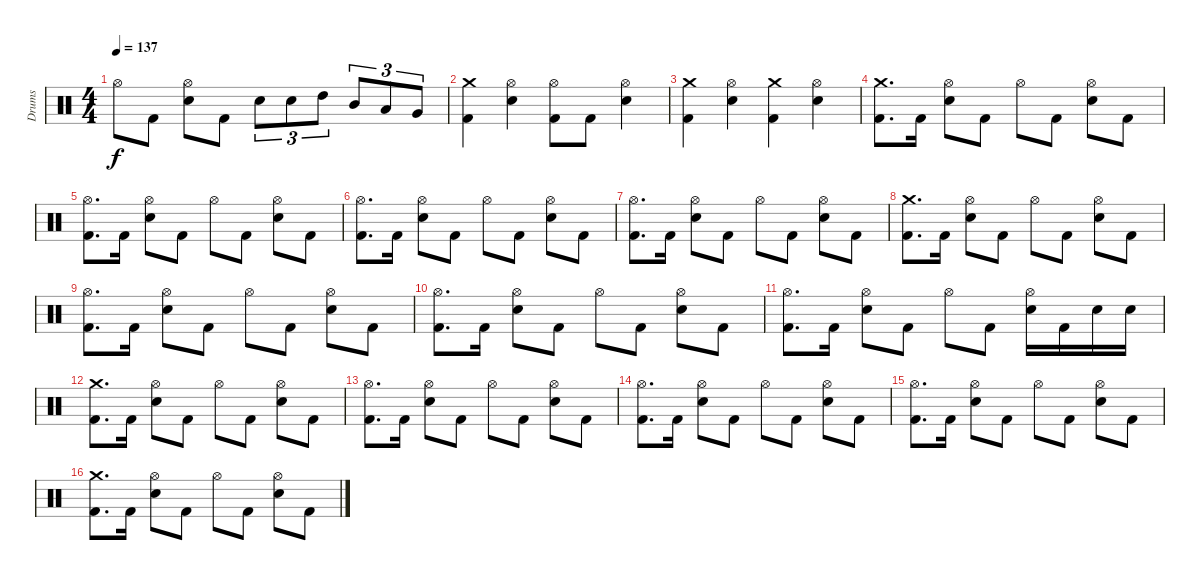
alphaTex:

\track ("Drums" "Drums") {instrument percussion}
\staff {score}
\articulation defaults
\ts (4 4)
\tempo 137
\clef neutral
\ks c "Hi-Hat (open)".8{dy f} "Kick (hit) 2".8
("Hi-Hat (open)" "Electric Snare (hit)").8 "Kick (hit) 2".8 "Electric Snare (hit)".8{tu (3 2)} "Electric Snare (hit)".8{tu (3 2)} "High Tom (hit)".8{tu (3 2)} "Mid Tom (hit)".8{tu (3 2)} "Low Tom (hit)".8{tu (3 2)} "Very Low Tom (hit)".8{tu (3 2)} |
("Crash medium (hit)" "Kick (hit) 2").4 ("Hi-Hat (open)" "Electric Snare (hit)").4 ("Hi-Hat (open)" "Kick (hit) 2").8 "Kick (hit) 2".8 ("Hi-Hat (open)" "Electric Snare (hit)").4 |
("Crash medium (hit)" "Kick (hit) 2").4 ("Hi-Hat (open)" "Electric Snare (hit)").4 ("Crash medium (hit)" "Kick (hit) 2").4 ("Hi-Hat (open)" "Electric Snare (hit)").4 |
("Crash medium (hit)" "Kick (hit) 2").8{d} "Kick (hit) 2".16 ("Hi-Hat (open)" "Electric Snare (hit)").8 "Kick (hit) 2".8 "Hi-Hat (open)".8 "Kick (hit) 2".8 ("Hi-Hat (open)" "Electric Snare (hit)").8 "Kick (hit) 2".8 |
("Hi-Hat (open)" "Kick (hit) 2").8{d} "Kick (hit) 2".16 ("Hi-Hat (open)" "Electric Snare (hit)").8 "Kick (hit) 2".8 "Hi-Hat (open)".8 "Kick (hit) 2".8 ("Hi-Hat (open)" "Electric Snare (hit)").8 "Kick (hit) 2".8 |
("Hi-Hat (open)" "Kick (hit) 2").8{d} "Kick (hit) 2".16 ("Hi-Hat (open)" "Electric Snare (hit)").8 "Kick (hit) 2".8 "Hi-Hat (open)".8 "Kick (hit) 2".8 ("Hi-Hat (open)" "Electric Snare (hit)").8 "Kick (hit) 2".8 |
("Hi-Hat (open)" "Kick (hit) 2").8{d} "Kick (hit) 2".16 ("Hi-Hat (open)" "Electric Snare (hit)").8 "Kick (hit) 2".8 "Hi-Hat (open)".8 "Kick (hit) 2".8 ("Hi-Hat (open)" "Electric Snare (hit)").8 "Kick (hit) 2".8 |
("Crash medium (hit)" "Kick (hit) 2").8{d} "Kick (hit) 2".16 ("Hi-Hat (open)" "Electric Snare (hit)").8 "Kick (hit) 2".8 "Hi-Hat (open)".8 "Kick (hit) 2".8 ("Hi-Hat (open)" "Electric Snare (hit)").8 "Kick (hit) 2".8 |
("Hi-Hat (open)" "Kick (hit) 2").8{d} "Kick (hit) 2".16 ("Hi-Hat (open)" "Electric Snare (hit)").8 "Kick (hit) 2".8 "Hi-Hat (open)".8 "Kick (hit) 2".8 ("Hi-Hat (open)" "Electric Snare (hit)").8 "Kick (hit) 2".8 |
("Hi-Hat (open)" "Kick (hit) 2").8{d} "Kick (hit) 2".16 ("Hi-Hat (open)" "Electric Snare (hit)").8 "Kick (hit) 2".8 "Hi-Hat (open)".8 "Kick (hit) 2".8 ("Hi-Hat (open)" "Electric Snare (hit)").8 "Kick (hit) 2".8 |
("Hi-Hat (open)" "Kick (hit) 2").8{d} "Kick (hit) 2".16 ("Hi-Hat (open)" "Electric Snare (hit)").8 "Kick (hit) 2".8 "Hi-Hat (open)".8 "Kick (hit) 2".8 ("Hi-Hat (open)" "Electric Snare (hit)").16 "Kick (hit) 2".16 "Electric Snare (hit)".16 "Electric Snare (hit)".16 |
("Crash medium (hit)" "Kick (hit) 2").8{d} "Kick (hit) 2".16 ("Hi-Hat (open)" "Electric Snare (hit)").8 "Kick (hit) 2".8 "Hi-Hat (open)".8 "Kick (hit) 2".8 ("Hi-Hat (open)" "Electric Snare (hit)").8 "Kick (hit) 2".8 |
("Hi-Hat (open)" "Kick (hit) 2").8{d} "Kick (hit) 2".16 ("Hi-Hat (open)" "Electric Snare (hit)").8 "Kick (hit) 2".8 "Hi-Hat (open)".8 "Kick (hit) 2".8 ("Hi-Hat (open)" "Electric Snare (hit)").8 "Kick (hit) 2".8 |
("Hi-Hat (open)" "Kick (hit) 2").8{d} "Kick (hit) 2".16 ("Hi-Hat (open)" "Electric Snare (hit)").8 "Kick (hit) 2".8 "Hi-Hat (open)".8 "Kick (hit) 2".8 ("Hi-Hat (open)" "Electric Snare (hit)").8 "Kick (hit) 2".8 |
("Hi-Hat (open)" "Kick (hit) 2").8{d} "Kick (hit) 2".16 ("Hi-Hat (open)" "Electric Snare (hit)").8 "Kick (hit) 2".8 "Hi-Hat (open)".8 "Kick (hit) 2".8 ("Hi-Hat (open)" "Electric Snare (hit)").8 "Kick (hit) 2".8 |
("Crash medium (hit)" "Kick (hit) 2").8{d} "Kick (hit) 2".16 ("Hi-Hat (open)" "Electric Snare (hit)").8 "Kick (hit) 2".8 "Hi-Hat (open)".8 "Kick (hit) 2".8 ("Hi-Hat (open)" "Electric Snare (hit)").8 "Kick (hit) 2".8
